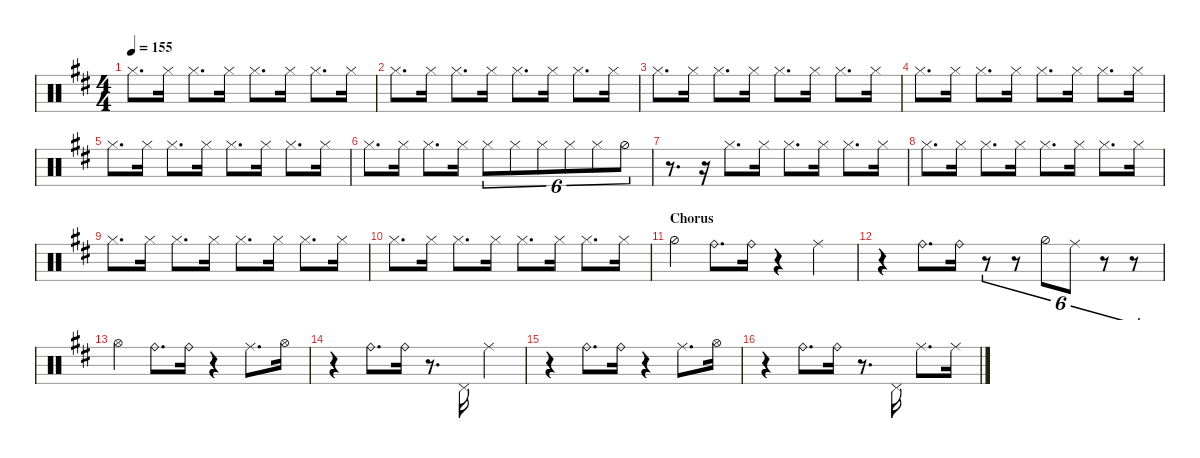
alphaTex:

\hideDynamics
\bracketExtendMode nobrackets
\singleTrackTrackNamePolicy hidden
\multiTrackTrackNamePolicy hidden
\otherSystemsTrackNameOrientation horizontal
\track ("Perc" "Drums") {instrument percussion}
\staff {score}
\articulation defaults
\ts (4 4)
\tempo 155
\clef neutral
\ks d "Hi-Hat (closed)"{acc forcenatural}.8{d dy p beam Down} "Hi-Hat (closed)"{acc forcenatural}.16{beam Down} "Hi-Hat (closed)"{acc forcenatural}.8{d beam Down} "Hi-Hat (closed)"{acc forcenatural}.16{dy mp beam Down} "Hi-Hat (closed)"{acc forcenatural}.8{d dy p beam Down} "Hi-Hat (closed)"{acc forcenatural}.16{beam Down} "Hi-Hat (closed)"{acc forcenatural}.8{d beam Down} "Hi-Hat (closed)"{acc forcenatural}.16{beam Down}
|
"Hi-Hat (closed)"{acc forcenatural}.8{d beam Down} "Hi-Hat (closed)"{acc forcenatural}.16{beam Down} "Hi-Hat (closed)"{acc forcenatural}.8{d beam Down} "Hi-Hat (closed)"{acc forcenatural}.16{dy mp beam Down} "Hi-Hat (closed)"{acc forcenatural}.8{d dy p beam Down} "Hi-Hat (closed)"{acc forcenatural}.16{beam Down} "Hi-Hat (closed)"{acc forcenatural}.8{d beam Down} "Hi-Hat (closed)"{acc forcenatural}.16{beam Down} |
"Hi-Hat (closed)"{acc forcenatural}.8{d beam Down} "Hi-Hat (closed)"{acc forcenatural}.16{beam Down} "Hi-Hat (closed)"{acc forcenatural}.8{d beam Down} "Hi-Hat (closed)"{acc forcenatural}.16{dy mp beam Down} "Hi-Hat (closed)"{acc forcenatural}.8{d dy p beam Down} "Hi-Hat (closed)"{acc forcenatural}.16{beam Down} "Hi-Hat (closed)"{acc forcenatural}.8{d beam Down} "Hi-Hat (closed)"{acc forcenatural}.16{beam Down} |
"Hi-Hat (closed)"{acc forcenatural}.8{d dy mp beam Down} "Hi-Hat (closed)"{acc forcenatural}.16{dy p beam Down} "Hi-Hat (closed)"{acc forcenatural}.8{d beam Down} "Hi-Hat (closed)"{acc forcenatural}.16{dy mf beam Down} "Hi-Hat (closed)"{acc forcenatural}.8{d dy p beam Down} "Hi-Hat (closed)"{acc forcenatural}.16{beam Down} "Hi-Hat (closed)"{acc forcenatural}.8{d beam Down} "Hi-Hat (closed)"{acc forcenatural}.16{beam Down} |
"Hi-Hat (closed)"{acc forcenatural}.8{d beam Down} "Hi-Hat (closed)"{acc forcenatural}.16{beam Down} "Hi-Hat (closed)"{acc forcenatural}.8{d beam Down} "Hi-Hat (closed)"{acc forcenatural}.16{dy mp beam Down} "Hi-Hat (closed)"{acc forcenatural}.8{d dy p beam Down} "Hi-Hat (closed)"{acc forcenatural}.16{beam Down} "Hi-Hat (closed)"{acc forcenatural}.8{d beam Down} "Hi-Hat (closed)"{acc forcenatural}.16{beam Down} |
"Hi-Hat (closed)"{acc forcenatural}.8{d dy mp beam Down} "Hi-Hat (closed)"{acc forcenatural}.16{dy p beam Down} "Hi-Hat (closed)"{acc forcenatural}.8{d beam Down} "Hi-Hat (closed)"{acc forcenatural}.16{dy mf beam Down} "Hi-Hat (closed)"{acc forcenatural}.8{tu (6 4) dy mp beam Down} "Hi-Hat (closed)"{acc forcenatural}.8{tu (6 4) dy p beam Down} "Hi-Hat (closed)"{acc forcenatural}.8{tu (6 4) beam Down} "Hi-Hat (closed)"{acc forcenatural}.8{tu (6 4) beam Down} "Hi-Hat (closed)"{acc forcenatural}.8{tu (6 4) beam Down} "Hi-Hat (half)"{acc forcenatural}.8{tu (6 4) beam Down} |
r.8{d beam Down} r.16{beam Down} "Hi-Hat (closed)"{acc forcenatural}.8{d beam Down} "Hi-Hat (closed)"{acc forcenatural}.16{dy mp beam Down} "Hi-Hat (closed)"{acc forcenatural}.8{d dy p beam Down} "Hi-Hat (closed)"{acc forcenatural}.16{beam Down} "Hi-Hat (closed)"{acc forcenatural}.8{d beam Down} "Hi-Hat (closed)"{acc forcenatural}.16{beam Down} |
"Hi-Hat (closed)"{acc forcenatural}.8{d dy mp beam Down} "Hi-Hat (closed)"{acc forcenatural}.16{dy p beam Down} "Hi-Hat (closed)"{acc forcenatural}.8{d beam Down} "Hi-Hat (closed)"{acc forcenatural}.16{dy mf beam Down} "Hi-Hat (closed)"{acc forcenatural}.8{d dy p beam Down} "Hi-Hat (closed)"{acc forcenatural}.16{beam Down} "Hi-Hat (closed)"{acc forcenatural}.8{d beam Down} "Hi-Hat (closed)"{acc forcenatural}.16{beam Down} |
"Hi-Hat (closed)"{acc forcenatural}.8{d beam Down} "Hi-Hat (closed)"{acc forcenatural}.16{beam Down} "Hi-Hat (closed)"{acc forcenatural}.8{d beam Down} "Hi-Hat (closed)"{acc forcenatural}.16{dy mp beam Down} "Hi-Hat (closed)"{acc forcenatural}.8{d dy p beam Down} "Hi-Hat (closed)"{acc forcenatural}.16{beam Down} "Hi-Hat (closed)"{acc forcenatural}.8{d beam Down} "Hi-Hat (closed)"{acc forcenatural}.16{beam Down} |
"Hi-Hat (closed)"{acc forcenatural}.8{d beam Down} "Hi-Hat (closed)"{acc forcenatural}.16{beam Down} "Hi-Hat (closed)"{acc forcenatural}.8{d beam Down} "Hi-Hat (closed)"{acc forcenatural}.16{dy mp beam Down} "Hi-Hat (closed)"{acc forcenatural}.8{d dy p beam Down} "Hi-Hat (closed)"{acc forcenatural}.16{beam Down} "Hi-Hat (closed)"{acc forcenatural}.8{d beam Down} "Hi-Hat (closed)"{acc forcenatural}.16{beam Down} |
\section ("" "Chorus")
"Hi-Hat (half)"{acc forcenatural}.4{dy mp beam Down} "Ride (bell)"{acc forcenatural}.8{d dy pp beam Down} "Ride (bell)"{acc forcenatural}.16{beam Down} r.4{beam Down} "Ride (middle)"{acc forcenatural}.4{dy mf beam Down} |
r.4{beam Down} "Ride (bell)"{acc forcenatural}.8{d dy pp beam Down} "Ride (bell)"{acc forcenatural}.16{beam Down} r.8{tu (6 4) beam Down} r.8{tu (6 4) beam Down} "Hi-Hat (half)"{acc forcenatural}.8{tu (6 4) dy p beam Down} "Ride (middle)"{acc forcenatural}.8{tu (6 4) dy mf beam Down} r.8{tu (6 4) beam Down} r.8{tu (6 4) beam Down} |
"Hi-Hat (open)"{acc forcenatural}.4{beam Down} "Ride (bell)"{acc forcenatural}.8{d dy pp beam Down} "Ride (bell)"{acc forcenatural}.16{beam Down} r.4{beam Down} "Ride (middle)"{acc forcenatural}.8{d dy mf beam Down} "Hi-Hat (open)"{acc forcenatural}.16{dy mp beam Down} |
r.4{beam Down} "Ride (bell)"{acc forcenatural}.8{d dy pp beam Down} "Ride (bell)"{acc forcenatural}.16{beam Down} r.8{d beam Down} "Pedal Hi-Hat (hit)"{acc forcenatural}.16{dy p beam Up} "Ride (middle)"{acc forcenatural}.4{dy mf beam Down} |
r.4{beam Down} "Ride (bell)"{acc forcenatural}.8{d dy pp beam Down} "Ride (bell)"{acc forcenatural}.16{beam Down} r.4{beam Down} "Ride (middle)"{acc forcenatural}.8{d dy mf beam Down} "Hi-Hat (open)"{acc forcenatural}.16{dy mp beam Down} |
r.4{beam Down} "Ride (bell)"{acc forcenatural}.8{d dy pp beam Down} "Ride (bell)"{acc forcenatural}.16{beam Down} r.8{d beam Down} "Pedal Hi-Hat (hit)"{acc forcenatural}.16{dy p beam Up} "Ride (middle)"{acc forcenatural}.8{d dy mf beam Down} "Ride (middle)"{acc forcenatural}.16{beam Down}
